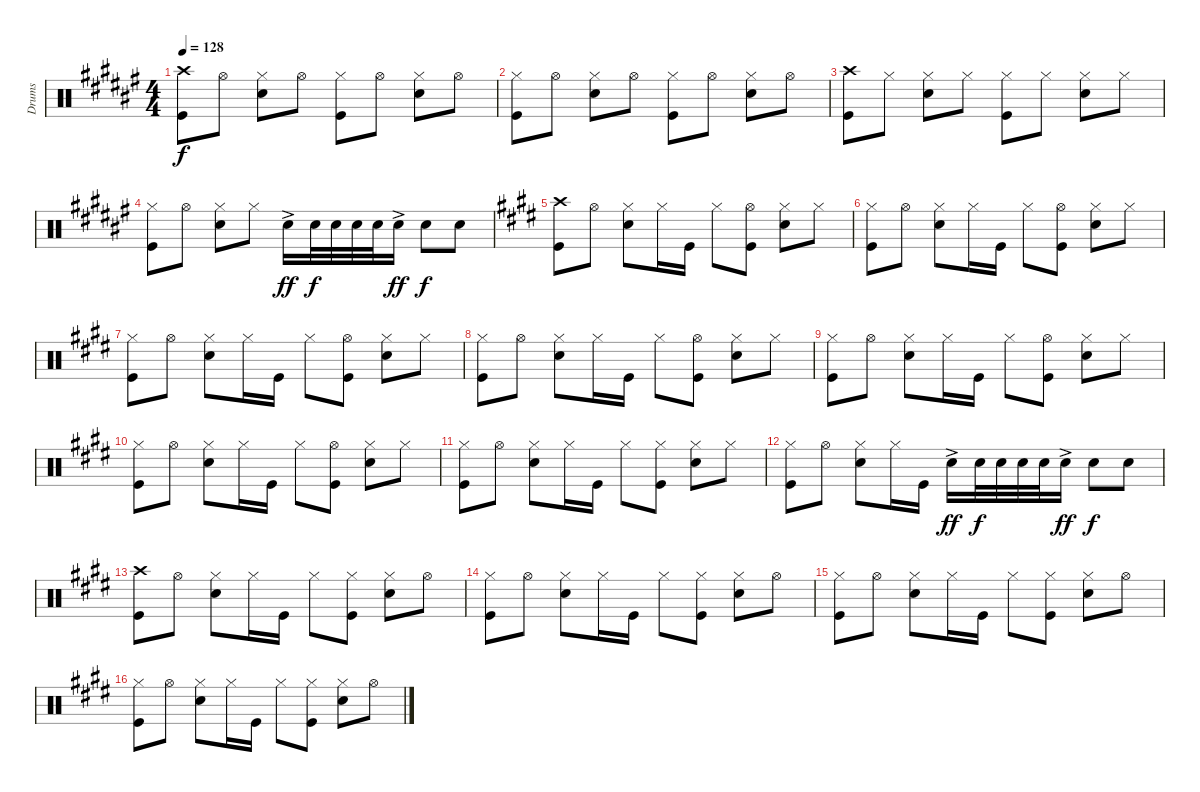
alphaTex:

\track ("Drums" "Drums") {instrument percussion}
\staff {score}
\articulation defaults
\ts (4 4)
\tempo 128
\clef neutral
\ks d#minor
("Crash high (hit)" "Kick (hit)").8{dy f} "Hi-Hat (open)".8 ("Snare (hit) 2" "Hi-Hat (closed)").8 "Hi-Hat (open)".8 ("Hi-Hat (closed)" "Kick (hit)").8 "Hi-Hat (open)".8 ("Hi-Hat (closed)" "Snare (hit) 2").8 "Hi-Hat (open)".8 |
("Hi-Hat (closed)" "Kick (hit)").8 "Hi-Hat (open)".8 ("Hi-Hat (closed)" "Snare (hit) 2").8 "Hi-Hat (open)".8 ("Hi-Hat (closed)" "Kick (hit)").8 "Hi-Hat (open)".8 ("Hi-Hat (closed)" "Snare (hit) 2").8 "Hi-Hat (open)".8 |
("Crash high (hit)" "Kick (hit)").8 "Hi-Hat (closed)".8 ("Hi-Hat (closed)" "Snare (hit) 2").8 "Hi-Hat (closed)".8 ("Hi-Hat (closed)" "Kick (hit)").8 "Hi-Hat (closed)".8 ("Hi-Hat (closed)" "Snare (hit) 2").8 "Hi-Hat (closed)".8 |
("Hi-Hat (closed)" "Kick (hit)").8 "Hi-Hat (open)".8 ("Hi-Hat (closed)" "Snare (hit) 2").8 "Hi-Hat (closed)".8 "Snare (hit) 2"{ac}.16{dy ff} "Snare (hit) 2".32{dy f} "Snare (hit) 2".32 "Snare (hit) 2".32 "Snare (hit) 2".32 "Snare (hit) 2"{ac}.16{dy ff} "Snare (hit) 2".8{dy f} "Snare (hit) 2".8 |
\ks c#minor
("Crash high (hit)" "Kick (hit)").8 "Hi-Hat (open)".8 ("Hi-Hat (closed)" "Snare (hit) 2").8 "Hi-Hat (closed)".16 "Kick (hit)".16 "Hi-Hat (closed)".8 ("Hi-Hat (open)" "Kick (hit)").8 ("Hi-Hat (closed)" "Snare (hit) 2").8 "Hi-Hat (closed)".8 |
("Hi-Hat (closed)" "Kick (hit)").8 "Hi-Hat (open)".8 ("Hi-Hat (closed)" "Snare (hit) 2").8 "Hi-Hat (closed)".16 "Kick (hit)".16 "Hi-Hat (closed)".8 ("Hi-Hat (open)" "Kick (hit)").8 ("Hi-Hat (closed)" "Snare (hit) 2").8 "Hi-Hat (closed)".8 |
("Hi-Hat (closed)" "Kick (hit)").8 "Hi-Hat (open)".8 ("Hi-Hat (closed)" "Snare (hit) 2").8 "Hi-Hat (closed)".16 "Kick (hit)".16 "Hi-Hat (closed)".8 ("Hi-Hat (open)" "Kick (hit)").8 ("Hi-Hat (closed)" "Snare (hit) 2").8 "Hi-Hat (closed)".8 |
("Hi-Hat (closed)" "Kick (hit)").8 "Hi-Hat (open)".8 ("Hi-Hat (closed)" "Snare (hit) 2").8 "Hi-Hat (closed)".16 "Kick (hit)".16 "Hi-Hat (closed)".8 ("Hi-Hat (open)" "Kick (hit)").8 ("Hi-Hat (closed)" "Snare (hit) 2").8 "Hi-Hat (closed)".8 |
("Hi-Hat (closed)" "Kick (hit)").8 "Hi-Hat (open)".8 ("Hi-Hat (closed)" "Snare (hit) 2").8 "Hi-Hat (closed)".16 "Kick (hit)".16 "Hi-Hat (closed)".8 ("Hi-Hat (open)" "Kick (hit)").8 ("Hi-Hat (closed)" "Snare (hit) 2").8 "Hi-Hat (closed)".8 |
("Hi-Hat (closed)" "Kick (hit)").8 "Hi-Hat (open)".8 ("Hi-Hat (closed)" "Snare (hit) 2").8 "Hi-Hat (closed)".16 "Kick (hit)".16 "Hi-Hat (closed)".8 ("Hi-Hat (open)" "Kick (hit)").8 ("Hi-Hat (closed)" "Snare (hit) 2").8 "Hi-Hat (closed)".8 |
("Hi-Hat (closed)" "Kick (hit)").8 "Hi-Hat (open)".8 ("Hi-Hat (closed)" "Snare (hit) 2").8 "Hi-Hat (closed)".16 "Kick (hit)".16 "Hi-Hat (closed)".8 ("Hi-Hat (closed)" "Kick (hit)").8 ("Hi-Hat (closed)" "Snare (hit) 2").8 "Hi-Hat (closed)".8 |
("Hi-Hat (closed)" "Kick (hit)").8 "Hi-Hat (open)".8 ("Hi-Hat (closed)" "Snare (hit) 2").8 "Hi-Hat (closed)".16 "Kick (hit)".16 "Snare (hit) 2"{ac}.16{dy ff} "Snare (hit) 2".32{dy f} "Snare (hit) 2".32 "Snare (hit) 2".32 "Snare (hit) 2".32 "Snare (hit) 2"{ac}.16{dy ff} "Snare (hit) 2".8{dy f} "Snare (hit) 2".8 |
("Crash high (hit)" "Kick (hit)").8 "Hi-Hat (open)".8 ("Hi-Hat (closed)" "Snare (hit) 2").8 "Hi-Hat (closed)".16 "Kick (hit)".16 "Hi-Hat (closed)".8 ("Hi-Hat (closed)" "Kick (hit)").8 ("Hi-Hat (closed)" "Snare (hit) 2").8 "Hi-Hat (open)".8 |
("Hi-Hat (closed)" "Kick (hit)").8 "Hi-Hat (open)".8 ("Hi-Hat (closed)" "Snare (hit) 2").8 "Hi-Hat (closed)".16 "Kick (hit)".16 "Hi-Hat (closed)".8 ("Hi-Hat (closed)" "Kick (hit)").8 ("Hi-Hat (closed)" "Snare (hit) 2").8 "Hi-Hat (open)".8 |
("Hi-Hat (closed)" "Kick (hit)").8 "Hi-Hat (open)".8 ("Hi-Hat (closed)" "Snare (hit) 2").8 "Hi-Hat (closed)".16 "Kick (hit)".16 "Hi-Hat (closed)".8 ("Hi-Hat (closed)" "Kick (hit)").8 ("Hi-Hat (closed)" "Snare (hit) 2").8 "Hi-Hat (open)".8 |
("Hi-Hat (closed)" "Kick (hit)").8 "Hi-Hat (open)".8 ("Hi-Hat (closed)" "Snare (hit) 2").8 "Hi-Hat (closed)".16 "Kick (hit)".16 "Hi-Hat (closed)".8 ("Hi-Hat (closed)" "Kick (hit)").8 ("Hi-Hat (closed)" "Snare (hit) 2").8 "Hi-Hat (open)".8
